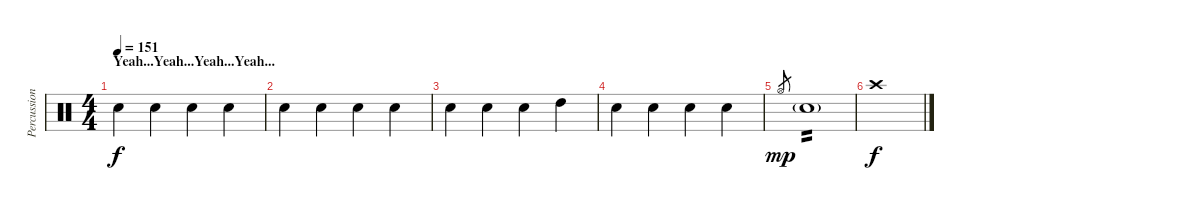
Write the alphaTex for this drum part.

\track ("Percussion" "Percussion") {instrument percussion}
\staff {score}
\articulation defaults
\ts (4 4)
\section ("" "Yeah...Yeah...Yeah...Yeah...")
\tempo 151
\clef neutral
\ks c "Snare (hit) 2".4{dy f} "Snare (hit) 2".4 "Snare (hit) 2".4 "Snare (hit) 2".4
|
"Snare (hit) 2".4 "Snare (hit) 2".4 "Snare (hit) 2".4 "Snare (hit) 2".4 |
"Snare (hit) 2".4 "Snare (hit) 2".4 "Snare (hit) 2".4 "High Tom (hit)".4 |
"Snare (hit) 2".4 "Snare (hit) 2".4 "Snare (hit) 2".4 "Snare (hit) 2".4 |
"Hi-Hat (open)".8{gr dy mp} "Snare (hit) 2"{g}.1{tp 2 volume 6} |
"Crash high (hit)".1{dy f}
